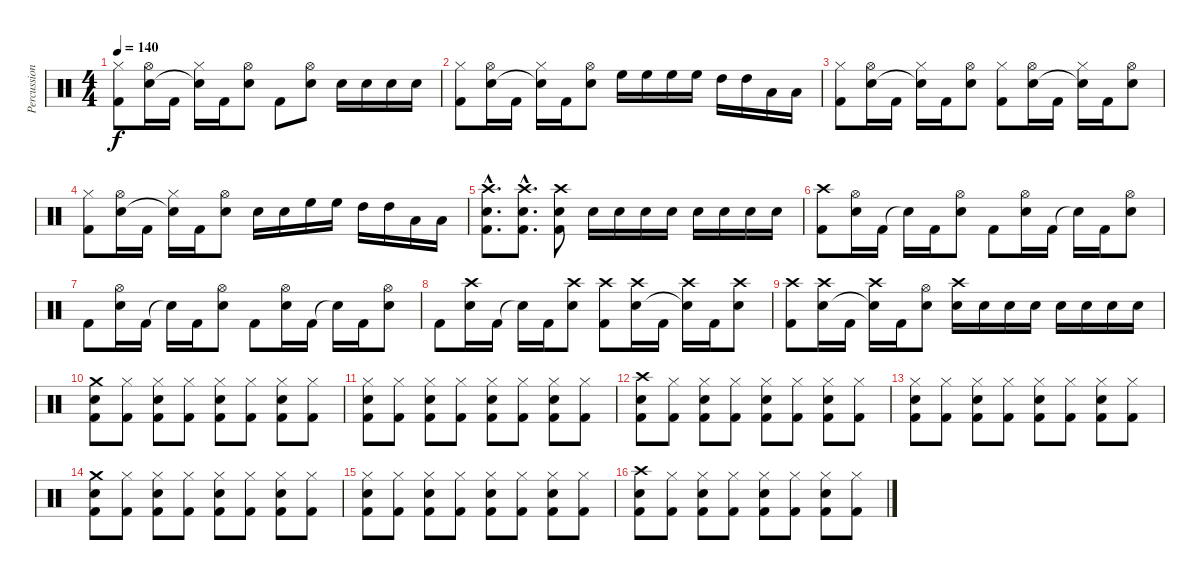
\track ("Percussion" "Percussion") {instrument percussion}
\staff {score}
\articulation defaults
\ts (4 4)
\tempo 140
\clef neutral
\ks c
("Hi-Hat (closed)" "Kick (hit) 2").8{dy f} ("Hi-Hat (open)" "Snare (hit) 2").16 "Kick (hit) 2".16 ("Hi-Hat (closed)" "Snare (hit)"{t}).16 "Kick (hit) 2".16 ("Hi-Hat (open)" "Snare (hit) 2").8 "Kick (hit) 2".8 ("Hi-Hat (open)" "Snare (hit) 2").8 "Snare (hit) 2".16 "Snare (hit) 2".16 "Snare (hit) 2".16 "Snare (hit) 2".16 |
("Hi-Hat (closed)" "Kick (hit) 2").8 ("Hi-Hat (open)" "Snare (hit) 2").16 "Kick (hit) 2".16 ("Hi-Hat (closed)" "Snare (hit)"{t}).16 "Kick (hit) 2".16 ("Hi-Hat (open)" "Snare (hit) 2").8 "High Floor Tom (hit)".16 "High Floor Tom (hit)".16 "High Floor Tom (hit)".16 "High Floor Tom (hit)".16 "High Tom (hit)".16 "High Tom (hit)".16 "Low Tom (hit)".16 "Low Tom (hit)".16 |
("Hi-Hat (closed)" "Kick (hit) 2").8 ("Hi-Hat (open)" "Snare (hit) 2").16 "Kick (hit) 2".16 ("Hi-Hat (closed)" "Snare (hit)"{t}).16 "Kick (hit) 2".16 ("Hi-Hat (open)" "Snare (hit) 2").8 ("Hi-Hat (closed)" "Kick (hit) 2").8 ("Hi-Hat (open)" "Snare (hit) 2").16 "Kick (hit) 2".16 ("Hi-Hat (closed)" "Snare (hit)"{t}).16 "Kick (hit) 2".16 ("Hi-Hat (open)" "Snare (hit) 2").8 |
("Hi-Hat (closed)" "Kick (hit) 2").8 ("Hi-Hat (open)" "Snare (hit) 2").16 "Kick (hit) 2".16 ("Hi-Hat (closed)" "Snare (hit)"{t}).16 "Kick (hit) 2".16 ("Hi-Hat (open)" "Snare (hit) 2").8 "Snare (hit) 2".16 "Snare (hit) 2".16 "High Floor Tom (hit)".16 "High Floor Tom (hit)".16 "High Tom (hit)".16 "High Tom (hit)".16 "Low Tom (hit)".16 "Low Tom (hit)".16 |
("Crash high (hit)"{hac} "Snare (hit) 2"{hac} "Kick (hit) 2"{hac}).8{d} ("Crash high (hit)"{hac} "Snare (hit) 2"{hac} "Kick (hit) 2"{hac}).8{d} ("Crash high (hit)" "Snare (hit) 2" "Kick (hit) 2").8 "Snare (hit) 2".16 "Snare (hit) 2".16 "Snare (hit) 2".16 "Snare (hit) 2".16 "Snare (hit) 2".16 "Snare (hit) 2".16 "Snare (hit) 2".16 "Snare (hit) 2".16 |
("Crash high (hit)" "Kick (hit) 2").8 ("Hi-Hat (open)" "Snare (hit) 2").16 "Kick (hit) 2".16 "Snare (hit)"{t}.16 "Kick (hit) 2".16 ("Hi-Hat (open)" "Snare (hit) 2").8 "Kick (hit) 2".8 ("Hi-Hat (open)" "Snare (hit) 2").16 "Kick (hit) 2".16 "Snare (hit)"{t}.16 "Kick (hit) 2".16 ("Hi-Hat (open)" "Snare (hit) 2").8 |
"Kick (hit) 2".8 ("Hi-Hat (open)" "Snare (hit) 2").16 "Kick (hit) 2".16 "Snare (hit)"{t}.16 "Kick (hit) 2".16 ("Hi-Hat (open)" "Snare (hit) 2").8 "Kick (hit) 2".8 ("Hi-Hat (open)" "Snare (hit) 2").16 "Kick (hit) 2".16 "Snare (hit)"{t}.16 "Kick (hit) 2".16 ("Hi-Hat (open)" "Snare (hit) 2").8 |
"Kick (hit) 2".8 ("Crash high (hit)" "Snare (hit) 2").16 "Kick (hit) 2".16 "Snare (hit)"{t}.16 "Kick (hit) 2".16 ("Crash high (hit)" "Snare (hit) 2").8 ("Crash high (hit)" "Kick (hit) 2").8 ("Crash high (hit)" "Snare (hit) 2").16 "Kick (hit) 2".16 ("Crash high (hit)" "Snare (hit)"{t}).16 "Kick (hit) 2".16 ("Crash high (hit)" "Snare (hit) 2").8 |
("Crash high (hit)" "Kick (hit) 2").8 ("Crash high (hit)" "Snare (hit) 2").16 "Kick (hit) 2".16 ("Crash high (hit)" "Snare (hit)"{t}).16 "Kick (hit) 2".16 ("Hi-Hat (open)" "Snare (hit) 2").8 ("Crash high (hit)" "Snare (hit) 2").16 "Snare (hit) 2".16 "Snare (hit) 2".16 "Snare (hit) 2".16 "Electric Snare (hit)".16 "Electric Snare (hit)".16 "Electric Snare (hit)".16 "Electric Snare (hit)".16 |
("Crash medium (hit)" "Snare (hit) 2" "Kick (hit) 2").8 ("Hi-Hat (closed)" "Kick (hit) 2").8 ("Hi-Hat (closed)" "Snare (hit) 2" "Kick (hit) 2").8 ("Hi-Hat (closed)" "Kick (hit) 2").8 ("Hi-Hat (closed)" "Snare (hit) 2" "Kick (hit) 2").8 ("Hi-Hat (closed)" "Kick (hit) 2").8 ("Hi-Hat (closed)" "Snare (hit) 2" "Kick (hit) 2").8 ("Hi-Hat (closed)" "Kick (hit) 2").8 |
("Hi-Hat (closed)" "Snare (hit) 2" "Kick (hit) 2").8 ("Hi-Hat (closed)" "Kick (hit) 2").8 ("Hi-Hat (closed)" "Snare (hit) 2" "Kick (hit) 2").8 ("Hi-Hat (closed)" "Kick (hit) 2").8 ("Hi-Hat (closed)" "Snare (hit) 2" "Kick (hit) 2").8 ("Hi-Hat (closed)" "Kick (hit) 2").8 ("Hi-Hat (closed)" "Snare (hit) 2" "Kick (hit) 2").8 ("Hi-Hat (closed)" "Kick (hit) 2").8 |
("Crash high (hit)" "Snare (hit) 2" "Kick (hit) 2").8 ("Hi-Hat (closed)" "Kick (hit) 2").8 ("Hi-Hat (closed)" "Snare (hit) 2" "Kick (hit) 2").8 ("Hi-Hat (closed)" "Kick (hit) 2").8 ("Hi-Hat (closed)" "Snare (hit) 2" "Kick (hit) 2").8 ("Hi-Hat (closed)" "Kick (hit) 2").8 ("Hi-Hat (closed)" "Snare (hit) 2" "Kick (hit) 2").8 ("Hi-Hat (closed)" "Kick (hit) 2").8 |
("Hi-Hat (closed)" "Snare (hit) 2" "Kick (hit) 2").8 ("Hi-Hat (closed)" "Kick (hit) 2").8 ("Hi-Hat (closed)" "Snare (hit) 2" "Kick (hit) 2").8 ("Hi-Hat (closed)" "Kick (hit) 2").8 ("Hi-Hat (closed)" "Snare (hit) 2" "Kick (hit) 2").8 ("Hi-Hat (closed)" "Kick (hit) 2").8 ("Hi-Hat (closed)" "Snare (hit) 2" "Kick (hit) 2").8 ("Hi-Hat (closed)" "Kick (hit) 2").8 |
("Crash medium (hit)" "Snare (hit) 2" "Kick (hit) 2").8 ("Hi-Hat (closed)" "Kick (hit) 2").8 ("Hi-Hat (closed)" "Snare (hit) 2" "Kick (hit) 2").8 ("Hi-Hat (closed)" "Kick (hit) 2").8 ("Hi-Hat (closed)" "Snare (hit) 2" "Kick (hit) 2").8 ("Hi-Hat (closed)" "Kick (hit) 2").8 ("Hi-Hat (closed)" "Snare (hit) 2" "Kick (hit) 2").8 ("Hi-Hat (closed)" "Kick (hit) 2").8 |
("Hi-Hat (closed)" "Snare (hit) 2" "Kick (hit) 2").8 ("Hi-Hat (closed)" "Kick (hit) 2").8 ("Hi-Hat (closed)" "Snare (hit) 2" "Kick (hit) 2").8 ("Hi-Hat (closed)" "Kick (hit) 2").8 ("Hi-Hat (closed)" "Snare (hit) 2" "Kick (hit) 2").8 ("Hi-Hat (closed)" "Kick (hit) 2").8 ("Hi-Hat (closed)" "Snare (hit) 2" "Kick (hit) 2").8 ("Hi-Hat (closed)" "Kick (hit) 2").8 |
("Crash high (hit)" "Snare (hit) 2" "Kick (hit) 2").8 ("Hi-Hat (closed)" "Kick (hit) 2").8 ("Hi-Hat (closed)" "Snare (hit) 2" "Kick (hit) 2").8 ("Hi-Hat (closed)" "Kick (hit) 2").8 ("Hi-Hat (closed)" "Snare (hit) 2" "Kick (hit) 2").8 ("Hi-Hat (closed)" "Kick (hit) 2").8 ("Hi-Hat (closed)" "Snare (hit) 2" "Kick (hit) 2").8 ("Hi-Hat (closed)" "Kick (hit) 2").8
